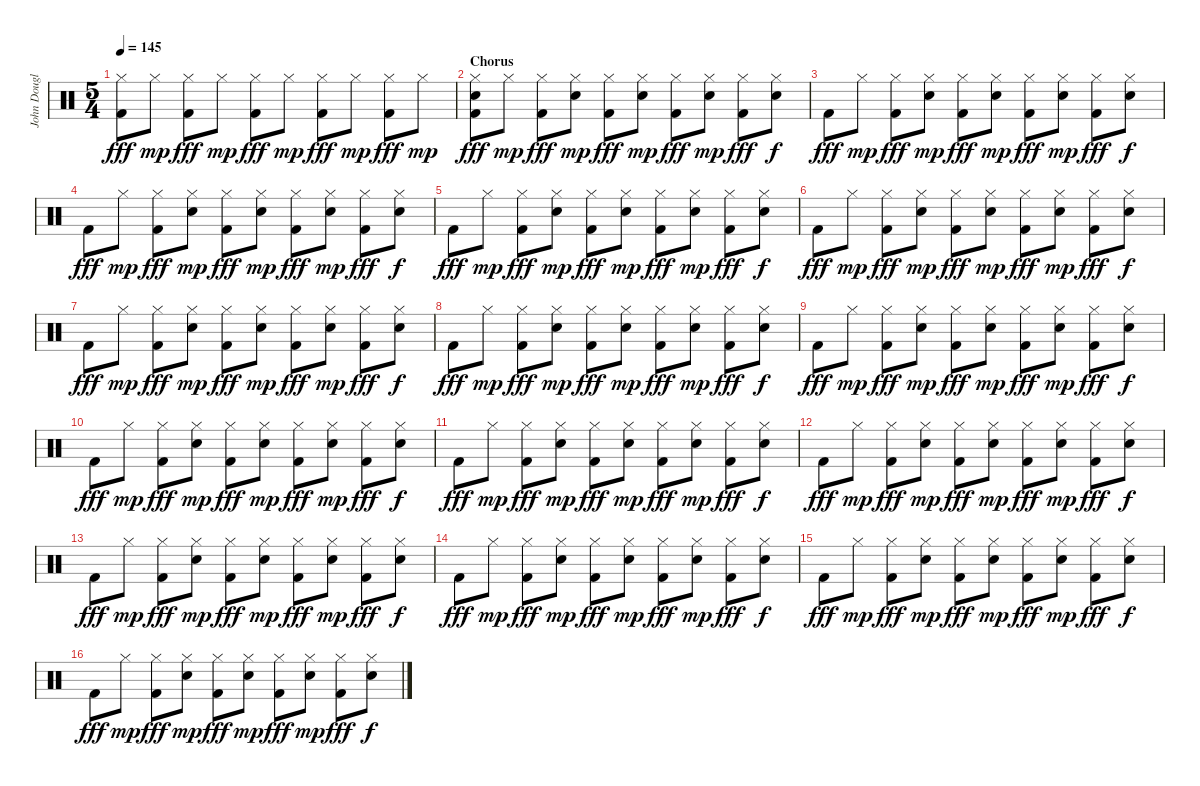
\track ("John Douglas (Drums)" "John Dougl") {instrument percussion}
\staff {score}
\articulation defaults
\ts (5 4)
\tempo 145
\clef neutral
\ks c
("Hi-Hat (closed)" "Kick (hit) 2").8{dy fff} "Hi-Hat (closed)".8{dy mp} ("Hi-Hat (closed)" "Kick (hit) 2").8{dy fff} "Hi-Hat (closed)".8{dy mp} ("Hi-Hat (closed)" "Kick (hit) 2").8{dy fff} "Hi-Hat (closed)".8{dy mp} ("Hi-Hat (closed)" "Kick (hit) 2").8{dy fff} "Hi-Hat (closed)".8{dy mp} ("Hi-Hat (closed)" "Kick (hit) 2").8{dy fff} "Hi-Hat (closed)".8{dy mp} |
\section ("" "Chorus")
("Hi-Hat (closed)" "Snare (hit) 2" "Kick (hit) 2").8{dy fff} "Hi-Hat (closed)".8{dy mp} ("Hi-Hat (closed)" "Kick (hit) 2").8{dy fff} ("Hi-Hat (closed)" "Snare (hit) 2").8{dy mp} ("Hi-Hat (closed)" "Kick (hit) 2").8{dy fff} ("Hi-Hat (closed)" "Snare (hit) 2").8{dy mp} ("Hi-Hat (closed)" "Kick (hit) 2").8{dy fff} ("Hi-Hat (closed)" "Snare (hit) 2").8{dy mp} ("Hi-Hat (closed)" "Kick (hit) 2").8{dy fff} ("Hi-Hat (closed)" "Snare (hit) 2").8{dy f} |
"Kick (hit) 2".8{dy fff} "Hi-Hat (closed)".8{dy mp} ("Hi-Hat (closed)" "Kick (hit) 2").8{dy fff} ("Hi-Hat (closed)" "Snare (hit) 2").8{dy mp} ("Hi-Hat (closed)" "Kick (hit) 2").8{dy fff} ("Hi-Hat (closed)" "Snare (hit) 2").8{dy mp} ("Hi-Hat (closed)" "Kick (hit) 2").8{dy fff} ("Hi-Hat (closed)" "Snare (hit) 2").8{dy mp} ("Hi-Hat (closed)" "Kick (hit) 2").8{dy fff} ("Hi-Hat (closed)" "Snare (hit) 2").8{dy f} |
"Kick (hit) 2".8{dy fff} "Hi-Hat (closed)".8{dy mp} ("Hi-Hat (closed)" "Kick (hit) 2").8{dy fff} ("Hi-Hat (closed)" "Snare (hit) 2").8{dy mp} ("Hi-Hat (closed)" "Kick (hit) 2").8{dy fff} ("Hi-Hat (closed)" "Snare (hit) 2").8{dy mp} ("Hi-Hat (closed)" "Kick (hit) 2").8{dy fff} ("Hi-Hat (closed)" "Snare (hit) 2").8{dy mp} ("Hi-Hat (closed)" "Kick (hit) 2").8{dy fff} ("Hi-Hat (closed)" "Snare (hit) 2").8{dy f} |
"Kick (hit) 2".8{dy fff} "Hi-Hat (closed)".8{dy mp} ("Hi-Hat (closed)" "Kick (hit) 2").8{dy fff} ("Hi-Hat (closed)" "Snare (hit) 2").8{dy mp} ("Hi-Hat (closed)" "Kick (hit) 2").8{dy fff} ("Hi-Hat (closed)" "Snare (hit) 2").8{dy mp} ("Hi-Hat (closed)" "Kick (hit) 2").8{dy fff} ("Hi-Hat (closed)" "Snare (hit) 2").8{dy mp} ("Hi-Hat (closed)" "Kick (hit) 2").8{dy fff} ("Hi-Hat (closed)" "Snare (hit) 2").8{dy f} |
"Kick (hit) 2".8{dy fff} "Hi-Hat (closed)".8{dy mp} ("Hi-Hat (closed)" "Kick (hit) 2").8{dy fff} ("Hi-Hat (closed)" "Snare (hit) 2").8{dy mp} ("Hi-Hat (closed)" "Kick (hit) 2").8{dy fff} ("Hi-Hat (closed)" "Snare (hit) 2").8{dy mp} ("Hi-Hat (closed)" "Kick (hit) 2").8{dy fff} ("Hi-Hat (closed)" "Snare (hit) 2").8{dy mp} ("Hi-Hat (closed)" "Kick (hit) 2").8{dy fff} ("Hi-Hat (closed)" "Snare (hit) 2").8{dy f} |
"Kick (hit) 2".8{dy fff} "Hi-Hat (closed)".8{dy mp} ("Hi-Hat (closed)" "Kick (hit) 2").8{dy fff} ("Hi-Hat (closed)" "Snare (hit) 2").8{dy mp} ("Hi-Hat (closed)" "Kick (hit) 2").8{dy fff} ("Hi-Hat (closed)" "Snare (hit) 2").8{dy mp} ("Hi-Hat (closed)" "Kick (hit) 2").8{dy fff} ("Hi-Hat (closed)" "Snare (hit) 2").8{dy mp} ("Hi-Hat (closed)" "Kick (hit) 2").8{dy fff} ("Hi-Hat (closed)" "Snare (hit) 2").8{dy f} |
"Kick (hit) 2".8{dy fff} "Hi-Hat (closed)".8{dy mp} ("Hi-Hat (closed)" "Kick (hit) 2").8{dy fff} ("Hi-Hat (closed)" "Snare (hit) 2").8{dy mp} ("Hi-Hat (closed)" "Kick (hit) 2").8{dy fff} ("Hi-Hat (closed)" "Snare (hit) 2").8{dy mp} ("Hi-Hat (closed)" "Kick (hit) 2").8{dy fff} ("Hi-Hat (closed)" "Snare (hit) 2").8{dy mp} ("Hi-Hat (closed)" "Kick (hit) 2").8{dy fff} ("Hi-Hat (closed)" "Snare (hit) 2").8{dy f} |
"Kick (hit) 2".8{dy fff} "Hi-Hat (closed)".8{dy mp} ("Hi-Hat (closed)" "Kick (hit) 2").8{dy fff} ("Hi-Hat (closed)" "Snare (hit) 2").8{dy mp} ("Hi-Hat (closed)" "Kick (hit) 2").8{dy fff} ("Hi-Hat (closed)" "Snare (hit) 2").8{dy mp} ("Hi-Hat (closed)" "Kick (hit) 2").8{dy fff} ("Hi-Hat (closed)" "Snare (hit) 2").8{dy mp} ("Hi-Hat (closed)" "Kick (hit) 2").8{dy fff} ("Hi-Hat (closed)" "Snare (hit) 2").8{dy f} |
"Kick (hit) 2".8{dy fff} "Hi-Hat (closed)".8{dy mp} ("Hi-Hat (closed)" "Kick (hit) 2").8{dy fff} ("Hi-Hat (closed)" "Snare (hit) 2").8{dy mp} ("Hi-Hat (closed)" "Kick (hit) 2").8{dy fff} ("Hi-Hat (closed)" "Snare (hit) 2").8{dy mp} ("Hi-Hat (closed)" "Kick (hit) 2").8{dy fff} ("Hi-Hat (closed)" "Snare (hit) 2").8{dy mp} ("Hi-Hat (closed)" "Kick (hit) 2").8{dy fff} ("Hi-Hat (closed)" "Snare (hit) 2").8{dy f} |
"Kick (hit) 2".8{dy fff} "Hi-Hat (closed)".8{dy mp} ("Hi-Hat (closed)" "Kick (hit) 2").8{dy fff} ("Hi-Hat (closed)" "Snare (hit) 2").8{dy mp} ("Hi-Hat (closed)" "Kick (hit) 2").8{dy fff} ("Hi-Hat (closed)" "Snare (hit) 2").8{dy mp} ("Hi-Hat (closed)" "Kick (hit) 2").8{dy fff} ("Hi-Hat (closed)" "Snare (hit) 2").8{dy mp} ("Hi-Hat (closed)" "Kick (hit) 2").8{dy fff} ("Hi-Hat (closed)" "Snare (hit) 2").8{dy f} |
"Kick (hit) 2".8{dy fff} "Hi-Hat (closed)".8{dy mp} ("Hi-Hat (closed)" "Kick (hit) 2").8{dy fff} ("Hi-Hat (closed)" "Snare (hit) 2").8{dy mp} ("Hi-Hat (closed)" "Kick (hit) 2").8{dy fff} ("Hi-Hat (closed)" "Snare (hit) 2").8{dy mp} ("Hi-Hat (closed)" "Kick (hit) 2").8{dy fff} ("Hi-Hat (closed)" "Snare (hit) 2").8{dy mp} ("Hi-Hat (closed)" "Kick (hit) 2").8{dy fff} ("Hi-Hat (closed)" "Snare (hit) 2").8{dy f} |
"Kick (hit) 2".8{dy fff} "Hi-Hat (closed)".8{dy mp} ("Hi-Hat (closed)" "Kick (hit) 2").8{dy fff} ("Hi-Hat (closed)" "Snare (hit) 2").8{dy mp} ("Hi-Hat (closed)" "Kick (hit) 2").8{dy fff} ("Hi-Hat (closed)" "Snare (hit) 2").8{dy mp} ("Hi-Hat (closed)" "Kick (hit) 2").8{dy fff} ("Hi-Hat (closed)" "Snare (hit) 2").8{dy mp} ("Hi-Hat (closed)" "Kick (hit) 2").8{dy fff} ("Hi-Hat (closed)" "Snare (hit) 2").8{dy f} |
"Kick (hit) 2".8{dy fff} "Hi-Hat (closed)".8{dy mp} ("Hi-Hat (closed)" "Kick (hit) 2").8{dy fff} ("Hi-Hat (closed)" "Snare (hit) 2").8{dy mp} ("Hi-Hat (closed)" "Kick (hit) 2").8{dy fff} ("Hi-Hat (closed)" "Snare (hit) 2").8{dy mp} ("Hi-Hat (closed)" "Kick (hit) 2").8{dy fff} ("Hi-Hat (closed)" "Snare (hit) 2").8{dy mp} ("Hi-Hat (closed)" "Kick (hit) 2").8{dy fff} ("Hi-Hat (closed)" "Snare (hit) 2").8{dy f} |
"Kick (hit) 2".8{dy fff} "Hi-Hat (closed)".8{dy mp} ("Hi-Hat (closed)" "Kick (hit) 2").8{dy fff} ("Hi-Hat (closed)" "Snare (hit) 2").8{dy mp} ("Hi-Hat (closed)" "Kick (hit) 2").8{dy fff} ("Hi-Hat (closed)" "Snare (hit) 2").8{dy mp} ("Hi-Hat (closed)" "Kick (hit) 2").8{dy fff} ("Hi-Hat (closed)" "Snare (hit) 2").8{dy mp} ("Hi-Hat (closed)" "Kick (hit) 2").8{dy fff} ("Hi-Hat (closed)" "Snare (hit) 2").8{dy f} |
"Kick (hit) 2".8{dy fff} "Hi-Hat (closed)".8{dy mp} ("Hi-Hat (closed)" "Kick (hit) 2").8{dy fff} ("Hi-Hat (closed)" "Snare (hit) 2").8{dy mp} ("Hi-Hat (closed)" "Kick (hit) 2").8{dy fff} ("Hi-Hat (closed)" "Snare (hit) 2").8{dy mp} ("Hi-Hat (closed)" "Kick (hit) 2").8{dy fff} ("Hi-Hat (closed)" "Snare (hit) 2").8{dy mp} ("Hi-Hat (closed)" "Kick (hit) 2").8{dy fff} ("Hi-Hat (closed)" "Snare (hit) 2").8{dy f}
